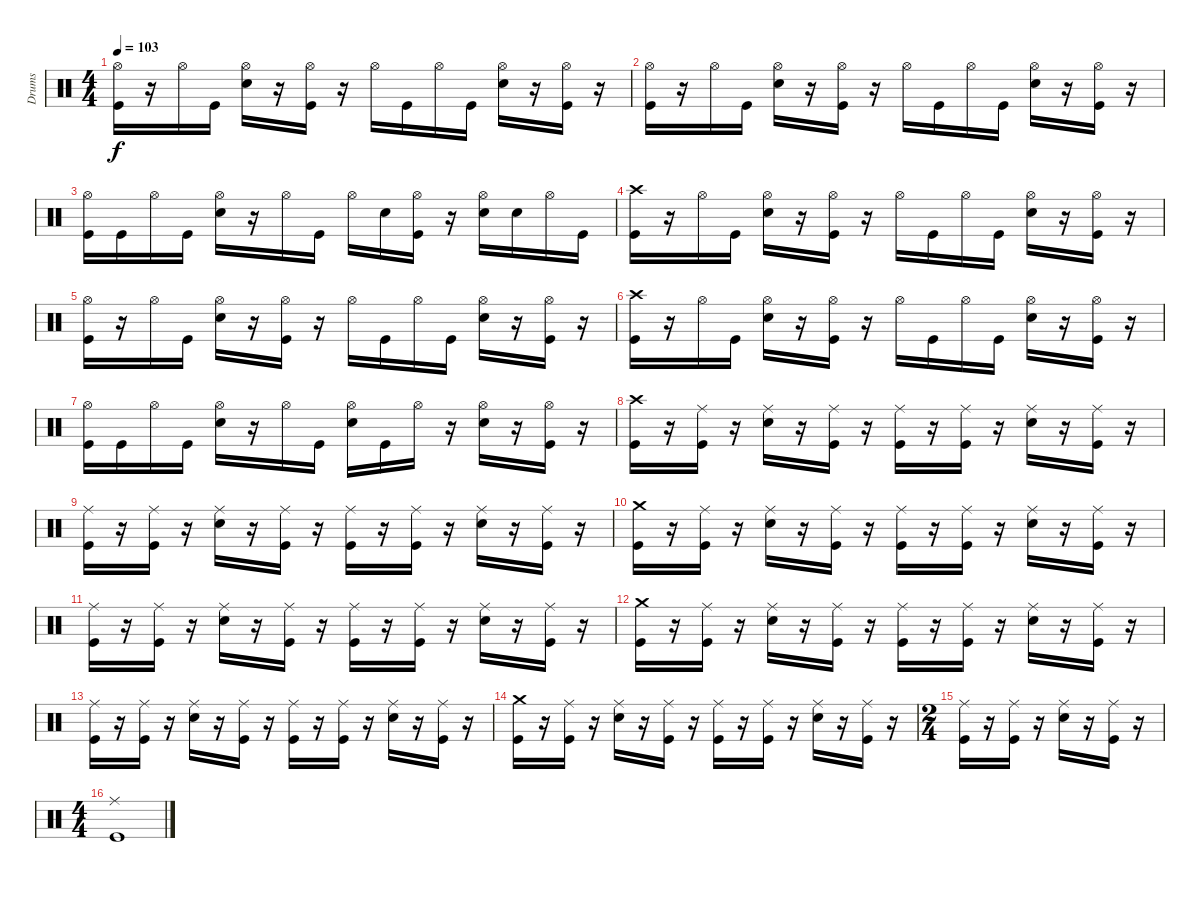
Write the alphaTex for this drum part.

\track ("Drums" "Drums") {instrument percussion}
\staff {score}
\articulation defaults
\ts (4 4)
\tempo 103
\clef neutral
\ks c
("Hi-Hat (open)" "Kick (hit)").16{dy f} r.16 "Hi-Hat (open)".16 "Kick (hit)".16 ("Hi-Hat (open)" "Electric Snare (hit)").16 r.16 ("Hi-Hat (open)" "Kick (hit)").16 r.16 "Hi-Hat (open)".16 "Kick (hit)".16 "Hi-Hat (open)".16 "Kick (hit)".16 ("Hi-Hat (open)" "Electric Snare (hit)").16 r.16 ("Hi-Hat (open)" "Kick (hit)").16 r.16 |
("Hi-Hat (open)" "Kick (hit)").16 r.16 "Hi-Hat (open)".16 "Kick (hit)".16 ("Hi-Hat (open)" "Electric Snare (hit)").16 r.16 ("Hi-Hat (open)" "Kick (hit)").16 r.16 "Hi-Hat (open)".16 "Kick (hit)".16 "Hi-Hat (open)".16 "Kick (hit)".16 ("Hi-Hat (open)" "Electric Snare (hit)").16 r.16 ("Hi-Hat (open)" "Kick (hit)").16 r.16 |
("Hi-Hat (open)" "Kick (hit)").16 "Kick (hit)".16 "Hi-Hat (open)".16 "Kick (hit)".16 ("Hi-Hat (open)" "Electric Snare (hit)").16 r.16 "Hi-Hat (open)".16 "Kick (hit)".16 "Hi-Hat (open)".16 "Electric Snare (hit)".16 ("Hi-Hat (open)" "Kick (hit)").16 r.16 ("Hi-Hat (open)" "Electric Snare (hit)").16 "Electric Snare (hit)".16 "Hi-Hat (open)".16 "Kick (hit)".16 |
("Crash high (hit)" "Kick (hit)").16 r.16 "Hi-Hat (open)".16 "Kick (hit)".16 ("Hi-Hat (open)" "Electric Snare (hit)").16 r.16 ("Hi-Hat (open)" "Kick (hit)").16 r.16 "Hi-Hat (open)".16 "Kick (hit)".16 "Hi-Hat (open)".16 "Kick (hit)".16 ("Hi-Hat (open)" "Electric Snare (hit)").16 r.16 ("Hi-Hat (open)" "Kick (hit)").16 r.16 |
("Hi-Hat (open)" "Kick (hit)").16 r.16 "Hi-Hat (open)".16 "Kick (hit)".16 ("Hi-Hat (open)" "Electric Snare (hit)").16 r.16 ("Hi-Hat (open)" "Kick (hit)").16 r.16 "Hi-Hat (open)".16 "Kick (hit)".16 "Hi-Hat (open)".16 "Kick (hit)".16 ("Hi-Hat (open)" "Electric Snare (hit)").16 r.16 ("Hi-Hat (open)" "Kick (hit)").16 r.16 |
("Crash high (hit)" "Kick (hit)").16 r.16 "Hi-Hat (open)".16 "Kick (hit)".16 ("Hi-Hat (open)" "Electric Snare (hit)").16 r.16 ("Hi-Hat (open)" "Kick (hit)").16 r.16 "Hi-Hat (open)".16 "Kick (hit)".16 "Hi-Hat (open)".16 "Kick (hit)".16 ("Hi-Hat (open)" "Electric Snare (hit)").16 r.16 ("Hi-Hat (open)" "Kick (hit)").16 r.16 |
("Hi-Hat (open)" "Kick (hit)").16 "Kick (hit)".16 "Hi-Hat (open)".16 "Kick (hit)".16 ("Hi-Hat (open)" "Electric Snare (hit)").16 r.16 "Hi-Hat (open)".16 "Kick (hit)".16 ("Hi-Hat (open)" "Electric Snare (hit)").16 "Kick (hit)".16 "Hi-Hat (open)".16 r.16 ("Hi-Hat (open)" "Electric Snare (hit)").16 r.16 ("Hi-Hat (open)" "Kick (hit)").16 r.16 |
("Crash high (hit)" "Kick (hit)").16 r.16 ("Ride (middle)" "Kick (hit)").16 r.16 ("Ride (middle)" "Electric Snare (hit)").16 r.16 ("Ride (middle)" "Kick (hit)").16 r.16 ("Ride (middle)" "Kick (hit)").16 r.16 ("Ride (middle)" "Kick (hit)").16 r.16 ("Ride (middle)" "Electric Snare (hit)").16 r.16 ("Ride (middle)" "Kick (hit)").16 r.16 |
("Ride (middle)" "Kick (hit)").16 r.16 ("Ride (middle)" "Kick (hit)").16 r.16 ("Ride (middle)" "Electric Snare (hit)").16 r.16 ("Ride (middle)" "Kick (hit)").16 r.16 ("Ride (middle)" "Kick (hit)").16 r.16 ("Ride (middle)" "Kick (hit)").16 r.16 ("Ride (middle)" "Electric Snare (hit)").16 r.16 ("Ride (middle)" "Kick (hit)").16 r.16 |
("Crash medium (hit)" "Kick (hit)").16 r.16 ("Ride (middle)" "Kick (hit)").16 r.16 ("Ride (middle)" "Electric Snare (hit)").16 r.16 ("Ride (middle)" "Kick (hit)").16 r.16 ("Ride (middle)" "Kick (hit)").16 r.16 ("Ride (middle)" "Kick (hit)").16 r.16 ("Ride (middle)" "Electric Snare (hit)").16 r.16 ("Ride (middle)" "Kick (hit)").16 r.16 |
("Ride (middle)" "Kick (hit)").16 r.16 ("Ride (middle)" "Kick (hit)").16 r.16 ("Ride (middle)" "Electric Snare (hit)").16 r.16 ("Ride (middle)" "Kick (hit)").16 r.16 ("Ride (middle)" "Kick (hit)").16 r.16 ("Ride (middle)" "Kick (hit)").16 r.16 ("Ride (middle)" "Electric Snare (hit)").16 r.16 ("Ride (middle)" "Kick (hit)").16 r.16 |
("Crash medium (hit)" "Kick (hit)").16 r.16 ("Ride (middle)" "Kick (hit)").16 r.16 ("Ride (middle)" "Electric Snare (hit)").16 r.16 ("Ride (middle)" "Kick (hit)").16 r.16 ("Ride (middle)" "Kick (hit)").16 r.16 ("Ride (middle)" "Kick (hit)").16 r.16 ("Ride (middle)" "Electric Snare (hit)").16 r.16 ("Ride (middle)" "Kick (hit)").16 r.16 |
("Ride (middle)" "Kick (hit)").16 r.16 ("Ride (middle)" "Kick (hit)").16 r.16 ("Ride (middle)" "Electric Snare (hit)").16 r.16 ("Ride (middle)" "Kick (hit)").16 r.16 ("Ride (middle)" "Kick (hit)").16 r.16 ("Ride (middle)" "Kick (hit)").16 r.16 ("Ride (middle)" "Electric Snare (hit)").16 r.16 ("Ride (middle)" "Kick (hit)").16 r.16 |
("Crash medium (hit)" "Kick (hit)").16 r.16 ("Ride (middle)" "Kick (hit)").16 r.16 ("Ride (middle)" "Electric Snare (hit)").16 r.16 ("Ride (middle)" "Kick (hit)").16 r.16 ("Ride (middle)" "Kick (hit)").16 r.16 ("Ride (middle)" "Kick (hit)").16 r.16 ("Ride (middle)" "Electric Snare (hit)").16 r.16 ("Ride (middle)" "Kick (hit)").16 r.16 |
\ts (2 4)
("Ride (middle)" "Kick (hit)").16 r.16 ("Ride (middle)" "Kick (hit)").16 r.16 ("Ride (middle)" "Electric Snare (hit)").16 r.16 ("Ride (middle)" "Kick (hit)").16 r.16 |
\ts (4 4)
("Ride (middle)" "Kick (hit)").1
